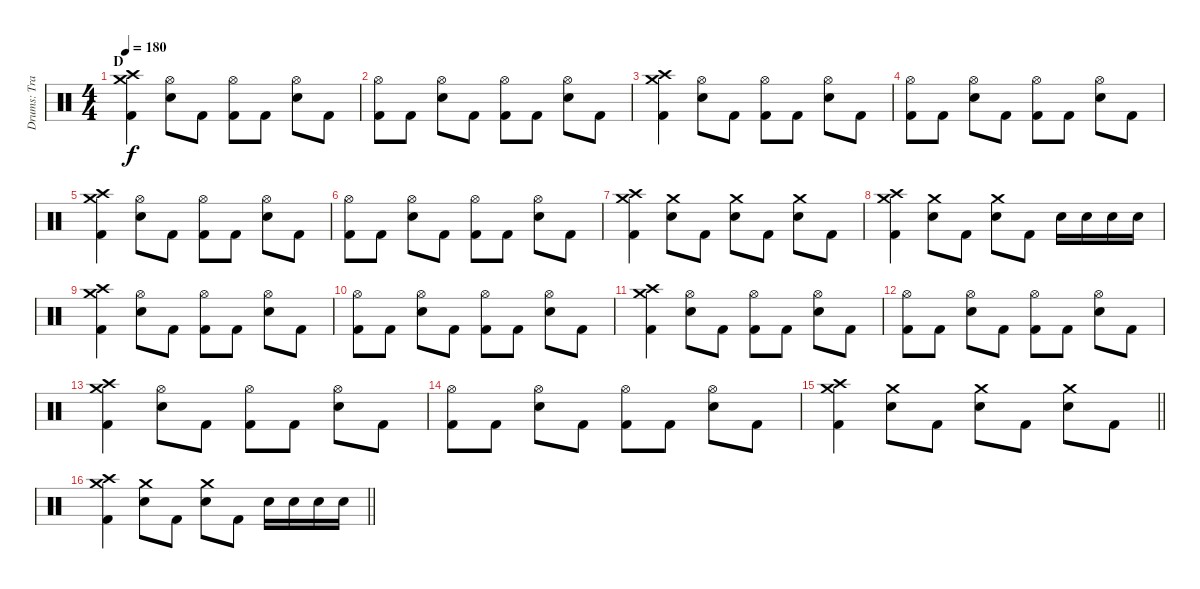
\track ("Drums: Travis Clarke" "Drums: Tra") {instrument percussion}
\staff {score}
\articulation defaults
\ts (4 4)
\section ("" "D")
\tempo 180
\clef neutral
\ks c
("Kick (hit) 2" "Crash high (hit)" "Crash medium (hit)").4{dy f} ("Snare (hit) 2" "Hi-Hat (open)").8 "Kick (hit) 2".8 ("Kick (hit) 2" "Hi-Hat (open)").8 "Kick (hit) 2".8 ("Snare (hit) 2" "Hi-Hat (open)").8 "Kick (hit) 2".8 |
("Kick (hit) 2" "Hi-Hat (open)").8 "Kick (hit) 2".8 ("Snare (hit) 2" "Hi-Hat (open)").8 "Kick (hit) 2".8 ("Kick (hit) 2" "Hi-Hat (open)").8 "Kick (hit) 2".8 ("Snare (hit) 2" "Hi-Hat (open)").8 "Kick (hit) 2".8 |
("Kick (hit) 2" "Crash high (hit)" "Crash medium (hit)").4 ("Snare (hit) 2" "Hi-Hat (open)").8 "Kick (hit) 2".8 ("Kick (hit) 2" "Hi-Hat (open)").8 "Kick (hit) 2".8 ("Snare (hit) 2" "Hi-Hat (open)").8 "Kick (hit) 2".8 |
("Kick (hit) 2" "Hi-Hat (open)").8 "Kick (hit) 2".8 ("Snare (hit) 2" "Hi-Hat (open)").8 "Kick (hit) 2".8 ("Kick (hit) 2" "Hi-Hat (open)").8 "Kick (hit) 2".8 ("Snare (hit) 2" "Hi-Hat (open)").8 "Kick (hit) 2".8 |
("Kick (hit) 2" "Crash high (hit)" "Crash medium (hit)").4 ("Snare (hit) 2" "Hi-Hat (open)").8 "Kick (hit) 2".8 ("Kick (hit) 2" "Hi-Hat (open)").8 "Kick (hit) 2".8 ("Snare (hit) 2" "Hi-Hat (open)").8 "Kick (hit) 2".8 |
("Kick (hit) 2" "Hi-Hat (open)").8 "Kick (hit) 2".8 ("Snare (hit) 2" "Hi-Hat (open)").8 "Kick (hit) 2".8 ("Kick (hit) 2" "Hi-Hat (open)").8 "Kick (hit) 2".8 ("Snare (hit) 2" "Hi-Hat (open)").8 "Kick (hit) 2".8 |
("Kick (hit) 2" "Crash high (hit)" "Crash medium (hit)").4 ("Snare (hit) 2" "Crash medium (hit)").8 "Kick (hit) 2".8 ("Snare (hit) 2" "Crash medium (hit)").8 "Kick (hit) 2".8 ("Snare (hit) 2" "Crash medium (hit)").8 "Kick (hit) 2".8 |
("Kick (hit) 2" "Crash high (hit)" "Crash medium (hit)").4 ("Snare (hit) 2" "Crash medium (hit)").8 "Kick (hit) 2".8 ("Snare (hit) 2" "Crash medium (hit)").8 "Kick (hit) 2".8 "Snare (hit) 2".16 "Snare (hit) 2".16 "Snare (hit) 2".16 "Snare (hit) 2".16 |
("Kick (hit) 2" "Crash high (hit)" "Crash medium (hit)").4 ("Snare (hit) 2" "Hi-Hat (open)").8 "Kick (hit) 2".8 ("Kick (hit) 2" "Hi-Hat (open)").8 "Kick (hit) 2".8 ("Snare (hit) 2" "Hi-Hat (open)").8 "Kick (hit) 2".8 |
("Kick (hit) 2" "Hi-Hat (open)").8 "Kick (hit) 2".8 ("Snare (hit) 2" "Hi-Hat (open)").8 "Kick (hit) 2".8 ("Kick (hit) 2" "Hi-Hat (open)").8 "Kick (hit) 2".8 ("Snare (hit) 2" "Hi-Hat (open)").8 "Kick (hit) 2".8 |
("Kick (hit) 2" "Crash high (hit)" "Crash medium (hit)").4 ("Snare (hit) 2" "Hi-Hat (open)").8 "Kick (hit) 2".8 ("Kick (hit) 2" "Hi-Hat (open)").8 "Kick (hit) 2".8 ("Snare (hit) 2" "Hi-Hat (open)").8 "Kick (hit) 2".8 |
("Kick (hit) 2" "Hi-Hat (open)").8 "Kick (hit) 2".8 ("Snare (hit) 2" "Hi-Hat (open)").8 "Kick (hit) 2".8 ("Kick (hit) 2" "Hi-Hat (open)").8 "Kick (hit) 2".8 ("Snare (hit) 2" "Hi-Hat (open)").8 "Kick (hit) 2".8 |
("Kick (hit) 2" "Crash high (hit)" "Crash medium (hit)").4 ("Snare (hit) 2" "Hi-Hat (open)").8 "Kick (hit) 2".8 ("Kick (hit) 2" "Hi-Hat (open)").8 "Kick (hit) 2".8 ("Snare (hit) 2" "Hi-Hat (open)").8 "Kick (hit) 2".8 |
("Kick (hit) 2" "Hi-Hat (open)").8 "Kick (hit) 2".8 ("Snare (hit) 2" "Hi-Hat (open)").8 "Kick (hit) 2".8 ("Kick (hit) 2" "Hi-Hat (open)").8 "Kick (hit) 2".8 ("Snare (hit) 2" "Hi-Hat (open)").8 "Kick (hit) 2".8 |
\barLineRight lightlight
("Kick (hit) 2" "Crash high (hit)" "Crash medium (hit)").4 ("Snare (hit) 2" "Crash medium (hit)").8 "Kick (hit) 2".8 ("Snare (hit) 2" "Crash medium (hit)").8 "Kick (hit) 2".8 ("Snare (hit) 2" "Crash medium (hit)").8 "Kick (hit) 2".8 |
\barLineRight lightlight
("Kick (hit) 2" "Crash high (hit)" "Crash medium (hit)").4 ("Snare (hit) 2" "Crash medium (hit)").8 "Kick (hit) 2".8 ("Snare (hit) 2" "Crash medium (hit)").8 "Kick (hit) 2".8 "Snare (hit) 2".16 "Snare (hit) 2".16 "Snare (hit) 2".16 "Snare (hit) 2".16
